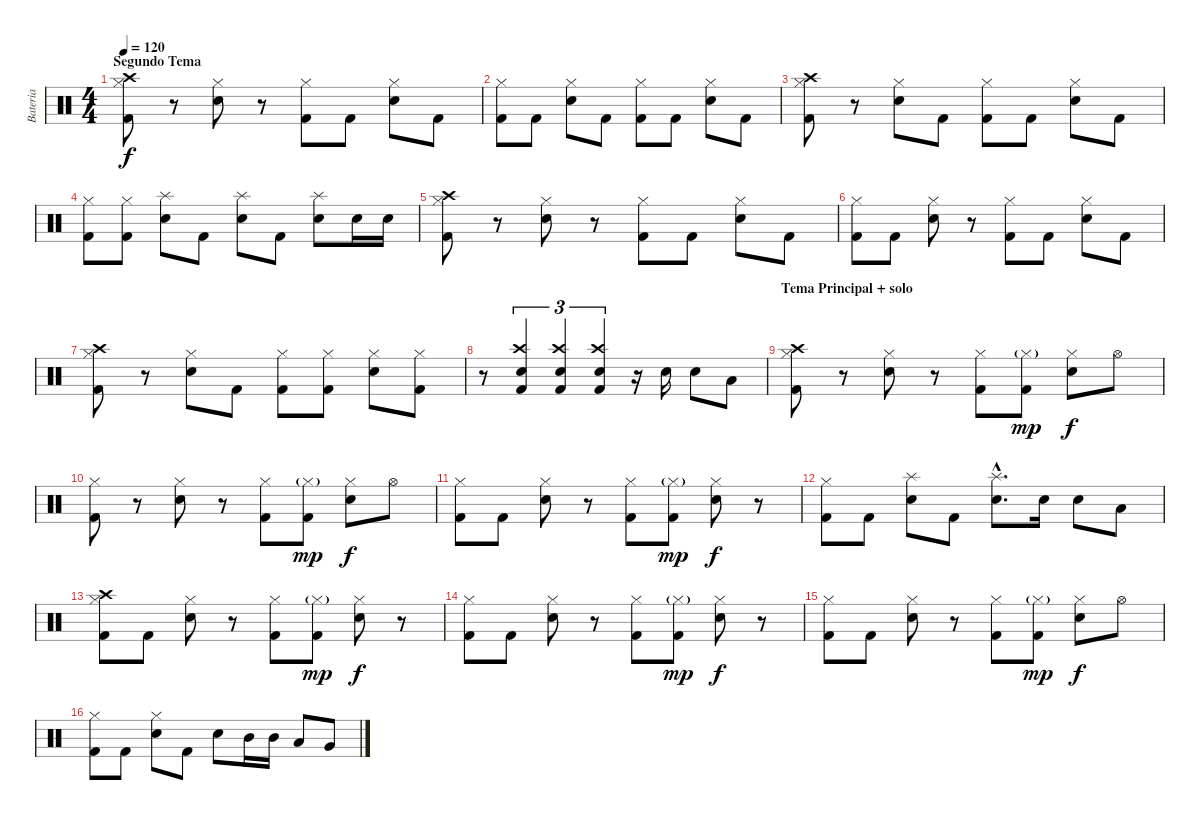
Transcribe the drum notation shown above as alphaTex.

\track ("Bateria" "Bateria") {instrument percussion}
\staff {score}
\articulation defaults
\ts (4 4)
\section ("" "Segundo Tema")
\tempo 120
\clef neutral
\ks c
("Hi-Hat (closed)" "Kick (hit) 2" "Crash high (hit)").8{dy f} r.8 ("Hi-Hat (closed)" "Snare (hit) 2").8 r.8 ("Hi-Hat (closed)" "Kick (hit) 2").8 "Kick (hit) 2".8 ("Hi-Hat (closed)" "Snare (hit) 2").8 "Kick (hit) 2".8 |
("Hi-Hat (closed)" "Kick (hit) 2").8 "Kick (hit) 2".8 ("Hi-Hat (closed)" "Snare (hit) 2").8 "Kick (hit) 2".8 ("Hi-Hat (closed)" "Kick (hit) 2").8 "Kick (hit) 2".8 ("Hi-Hat (closed)" "Snare (hit) 2").8 "Kick (hit) 2".8 |
("Hi-Hat (closed)" "Kick (hit) 2" "Crash high (hit)").8 r.8 ("Hi-Hat (closed)" "Snare (hit) 2").8 "Kick (hit) 2".8 ("Hi-Hat (closed)" "Kick (hit) 2").8 "Kick (hit) 2".8 ("Hi-Hat (closed)" "Snare (hit) 2").8 "Kick (hit) 2".8 |
("Hi-Hat (closed)" "Kick (hit) 2").8 ("Hi-Hat (closed)" "Kick (hit) 2").8 ("Snare (hit) 2" "Splash (hit)").8 "Kick (hit) 2".8 ("Snare (hit) 2" "Splash (hit)").8 "Kick (hit) 2".8 ("Snare (hit) 2" "Splash (hit)").8 "Snare (hit) 2".16 "Snare (hit) 2".16 |
("Hi-Hat (closed)" "Kick (hit) 2" "Crash high (hit)").8 r.8 ("Hi-Hat (closed)" "Snare (hit) 2").8 r.8 ("Hi-Hat (closed)" "Kick (hit) 2").8 "Kick (hit) 2".8 ("Hi-Hat (closed)" "Snare (hit) 2").8 "Kick (hit) 2".8 |
("Hi-Hat (closed)" "Kick (hit) 2").8 "Kick (hit) 2".8 ("Hi-Hat (closed)" "Snare (hit) 2").8 r.8 ("Hi-Hat (closed)" "Kick (hit) 2").8 "Kick (hit) 2".8 ("Hi-Hat (closed)" "Snare (hit) 2").8 "Kick (hit) 2".8 |
("Hi-Hat (closed)" "Kick (hit) 2" "Crash high (hit)").8 r.8 ("Hi-Hat (closed)" "Snare (hit) 2").8 "Kick (hit) 2".8 ("Hi-Hat (closed)" "Kick (hit) 2").8 ("Hi-Hat (closed)" "Kick (hit) 2").8 ("Hi-Hat (closed)" "Snare (hit) 2").8 ("Hi-Hat (closed)" "Kick (hit) 2").8 |
r.8 ("Snare (hit) 2" "Kick (hit) 2" "Crash high (hit)").4{tu (3 2)} ("Snare (hit) 2" "Kick (hit) 2" "Crash high (hit)").4{tu (3 2)} ("Snare (hit) 2" "Kick (hit) 2" "Crash high (hit)").4{tu (3 2)} r.16 "Snare (hit) 2".16 "Snare (hit) 2".8 "Low Tom (hit)".8 |
\section ("" "Tema Principal + solo")
("Hi-Hat (closed)" "Kick (hit) 2" "Crash high (hit)").8 r.8 ("Hi-Hat (closed)" "Snare (hit) 2").8 r.8 ("Hi-Hat (closed)" "Kick (hit) 2").8 ("Hi-Hat (closed)"{g} "Kick (hit) 2").8{dy mp} ("Hi-Hat (closed)" "Snare (hit) 2").8{dy f} "Hi-Hat (open)".8 |
("Hi-Hat (closed)" "Kick (hit) 2").8 r.8 ("Hi-Hat (closed)" "Snare (hit) 2").8 r.8 ("Hi-Hat (closed)" "Kick (hit) 2").8 ("Hi-Hat (closed)"{g} "Kick (hit) 2").8{dy mp} ("Hi-Hat (closed)" "Snare (hit) 2").8{dy f} "Hi-Hat (open)".8 |
("Hi-Hat (closed)" "Kick (hit) 2").8 "Kick (hit) 2".8 ("Hi-Hat (closed)" "Snare (hit) 2").8 r.8 ("Hi-Hat (closed)" "Kick (hit) 2").8 ("Hi-Hat (closed)"{g} "Kick (hit) 2").8{dy mp} ("Hi-Hat (closed)" "Snare (hit) 2").8{dy f} r.8 |
("Hi-Hat (closed)" "Kick (hit) 2").8 "Kick (hit) 2".8 ("Snare (hit) 2" "Splash (hit)").8 "Kick (hit) 2".8 ("Snare (hit) 2"{hac} "Splash (hit)"{hac}).8{d} "Snare (hit) 2".16 "Snare (hit) 2".8 "Low Tom (hit)".8 |
("Hi-Hat (closed)" "Kick (hit) 2" "Crash high (hit)").8 "Kick (hit) 2".8 ("Hi-Hat (closed)" "Snare (hit) 2").8 r.8 ("Hi-Hat (closed)" "Kick (hit) 2").8 ("Hi-Hat (closed)"{g} "Kick (hit) 2").8{dy mp} ("Hi-Hat (closed)" "Snare (hit) 2").8{dy f} r.8 |
("Hi-Hat (closed)" "Kick (hit) 2").8 "Kick (hit) 2".8 ("Hi-Hat (closed)" "Snare (hit) 2").8 r.8 ("Hi-Hat (closed)" "Kick (hit) 2").8 ("Hi-Hat (closed)"{g} "Kick (hit) 2").8{dy mp} ("Hi-Hat (closed)" "Snare (hit) 2").8{dy f} r.8 |
("Hi-Hat (closed)" "Kick (hit) 2").8 "Kick (hit) 2".8 ("Hi-Hat (closed)" "Snare (hit) 2").8 r.8 ("Hi-Hat (closed)" "Kick (hit) 2").8 ("Hi-Hat (closed)"{g} "Kick (hit) 2").8{dy mp} ("Hi-Hat (closed)" "Snare (hit) 2").8{dy f} "Hi-Hat (open)".8 |
("Hi-Hat (closed)" "Kick (hit) 2").8 "Kick (hit) 2".8 ("Hi-Hat (closed)" "Snare (hit) 2").8 "Kick (hit) 2".8 "Snare (hit) 2".8 "Mid Tom (hit)".16 "Mid Tom (hit)".16 "Low Tom (hit)".8 "Very Low Tom (hit)".8
